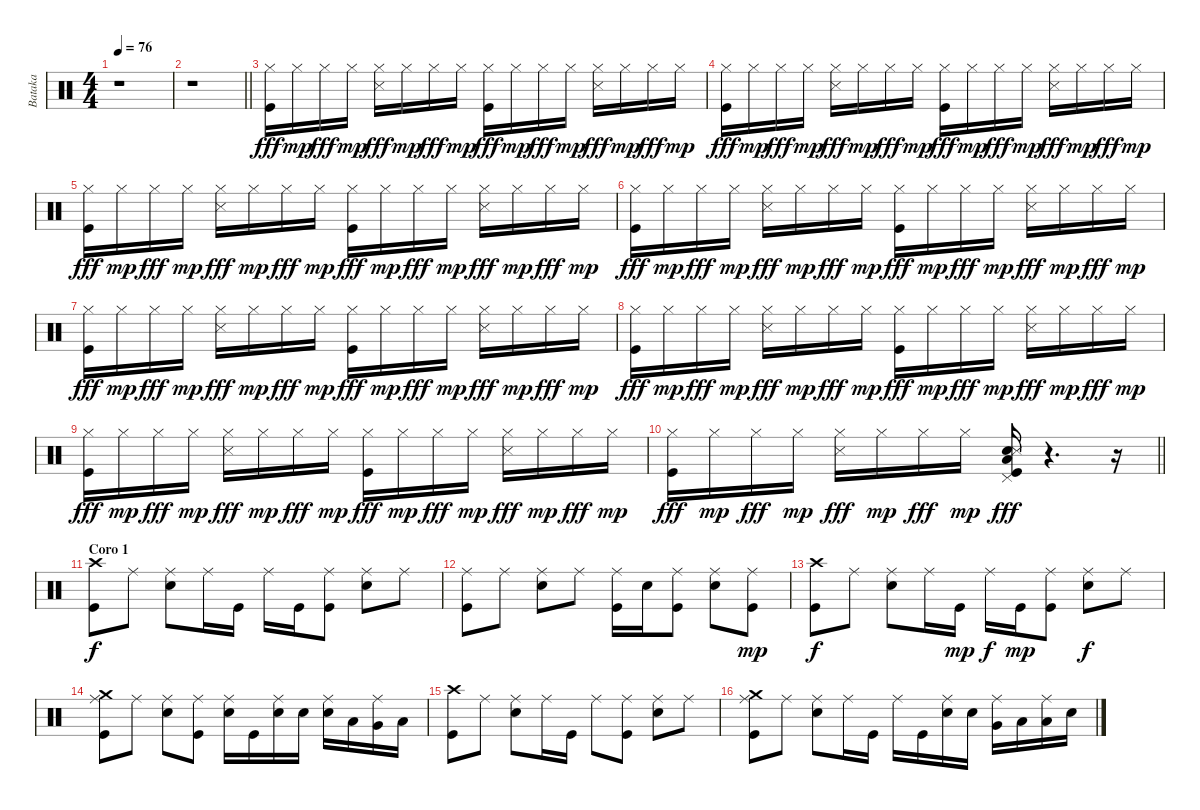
\track ("Bataka" "Bataka") {instrument percussion}
\staff {score}
\articulation defaults
\ts (4 4)
\tempo 76
\clef neutral
\ks c
r.1{dy f} |
\barLineRight lightlight
r.1 |
\section ("" "")
("Kick (hit)" "Hi-Hat (closed)").16{dy fff} "Hi-Hat (closed)".16{dy mp} "Hi-Hat (closed)".16{dy fff} "Hi-Hat (closed)".16{dy mp} ("Snare (side stick) 3" "Hi-Hat (closed)").16{dy fff} "Hi-Hat (closed)".16{dy mp} "Hi-Hat (closed)".16{dy fff} "Hi-Hat (closed)".16{dy mp} ("Kick (hit)" "Hi-Hat (closed)").16{dy fff} "Hi-Hat (closed)".16{dy mp} "Hi-Hat (closed)".16{dy fff} "Hi-Hat (closed)".16{dy mp} ("Snare (side stick) 3" "Hi-Hat (closed)").16{dy fff} "Hi-Hat (closed)".16{dy mp} "Hi-Hat (closed)".16{dy fff} "Hi-Hat (closed)".16{dy mp} |
("Kick (hit)" "Hi-Hat (closed)").16{dy fff} "Hi-Hat (closed)".16{dy mp} "Hi-Hat (closed)".16{dy fff} "Hi-Hat (closed)".16{dy mp} ("Snare (side stick) 3" "Hi-Hat (closed)").16{dy fff} "Hi-Hat (closed)".16{dy mp} "Hi-Hat (closed)".16{dy fff} "Hi-Hat (closed)".16{dy mp} ("Kick (hit)" "Hi-Hat (closed)").16{dy fff} "Hi-Hat (closed)".16{dy mp} "Hi-Hat (closed)".16{dy fff} "Hi-Hat (closed)".16{dy mp} ("Snare (side stick) 3" "Hi-Hat (closed)").16{dy fff} "Hi-Hat (closed)".16{dy mp} "Hi-Hat (closed)".16{dy fff} "Hi-Hat (closed)".16{dy mp} |
("Kick (hit)" "Hi-Hat (closed)").16{dy fff} "Hi-Hat (closed)".16{dy mp} "Hi-Hat (closed)".16{dy fff} "Hi-Hat (closed)".16{dy mp} ("Snare (side stick) 3" "Hi-Hat (closed)").16{dy fff} "Hi-Hat (closed)".16{dy mp} "Hi-Hat (closed)".16{dy fff} "Hi-Hat (closed)".16{dy mp} ("Kick (hit)" "Hi-Hat (closed)").16{dy fff} "Hi-Hat (closed)".16{dy mp} "Hi-Hat (closed)".16{dy fff} "Hi-Hat (closed)".16{dy mp} ("Snare (side stick) 3" "Hi-Hat (closed)").16{dy fff} "Hi-Hat (closed)".16{dy mp} "Hi-Hat (closed)".16{dy fff} "Hi-Hat (closed)".16{dy mp} |
("Kick (hit)" "Hi-Hat (closed)").16{dy fff} "Hi-Hat (closed)".16{dy mp} "Hi-Hat (closed)".16{dy fff} "Hi-Hat (closed)".16{dy mp} ("Snare (side stick) 3" "Hi-Hat (closed)").16{dy fff} "Hi-Hat (closed)".16{dy mp} "Hi-Hat (closed)".16{dy fff} "Hi-Hat (closed)".16{dy mp} ("Kick (hit)" "Hi-Hat (closed)").16{dy fff} "Hi-Hat (closed)".16{dy mp} "Hi-Hat (closed)".16{dy fff} "Hi-Hat (closed)".16{dy mp} ("Snare (side stick) 3" "Hi-Hat (closed)").16{dy fff} "Hi-Hat (closed)".16{dy mp} "Hi-Hat (closed)".16{dy fff} "Hi-Hat (closed)".16{dy mp} |
("Kick (hit)" "Hi-Hat (closed)").16{dy fff} "Hi-Hat (closed)".16{dy mp} "Hi-Hat (closed)".16{dy fff} "Hi-Hat (closed)".16{dy mp} ("Snare (side stick) 3" "Hi-Hat (closed)").16{dy fff} "Hi-Hat (closed)".16{dy mp} "Hi-Hat (closed)".16{dy fff} "Hi-Hat (closed)".16{dy mp} ("Kick (hit)" "Hi-Hat (closed)").16{dy fff} "Hi-Hat (closed)".16{dy mp} "Hi-Hat (closed)".16{dy fff} "Hi-Hat (closed)".16{dy mp} ("Snare (side stick) 3" "Hi-Hat (closed)").16{dy fff} "Hi-Hat (closed)".16{dy mp} "Hi-Hat (closed)".16{dy fff} "Hi-Hat (closed)".16{dy mp} |
("Kick (hit)" "Hi-Hat (closed)").16{dy fff} "Hi-Hat (closed)".16{dy mp} "Hi-Hat (closed)".16{dy fff} "Hi-Hat (closed)".16{dy mp} ("Snare (side stick) 3" "Hi-Hat (closed)").16{dy fff} "Hi-Hat (closed)".16{dy mp} "Hi-Hat (closed)".16{dy fff} "Hi-Hat (closed)".16{dy mp} ("Kick (hit)" "Hi-Hat (closed)").16{dy fff} "Hi-Hat (closed)".16{dy mp} "Hi-Hat (closed)".16{dy fff} "Hi-Hat (closed)".16{dy mp} ("Snare (side stick) 3" "Hi-Hat (closed)").16{dy fff} "Hi-Hat (closed)".16{dy mp} "Hi-Hat (closed)".16{dy fff} "Hi-Hat (closed)".16{dy mp} |
("Kick (hit)" "Hi-Hat (closed)").16{dy fff} "Hi-Hat (closed)".16{dy mp} "Hi-Hat (closed)".16{dy fff} "Hi-Hat (closed)".16{dy mp} ("Snare (side stick) 3" "Hi-Hat (closed)").16{dy fff} "Hi-Hat (closed)".16{dy mp} "Hi-Hat (closed)".16{dy fff} "Hi-Hat (closed)".16{dy mp} ("Kick (hit)" "Hi-Hat (closed)").16{dy fff} "Hi-Hat (closed)".16{dy mp} "Hi-Hat (closed)".16{dy fff} "Hi-Hat (closed)".16{dy mp} ("Snare (side stick) 3" "Hi-Hat (closed)").16{dy fff} "Hi-Hat (closed)".16{dy mp} "Hi-Hat (closed)".16{dy fff} "Hi-Hat (closed)".16{dy mp} |
\barLineRight lightlight
("Kick (hit)" "Hi-Hat (closed)").16{dy fff} "Hi-Hat (closed)".16{dy mp} "Hi-Hat (closed)".16{dy fff} "Hi-Hat (closed)".16{dy mp} ("Snare (side stick) 3" "Hi-Hat (closed)").16{dy fff} "Hi-Hat (closed)".16{dy mp} "Hi-Hat (closed)".16{dy fff} "Hi-Hat (closed)".16{dy mp} ("Kick (hit)" "Low Floor Tom (hit)" "Snare (hit) 2" "Pedal Hi-Hat (hit)" "Snare (side stick) 3").16{dy fff} r.4{d} r.16 |
\section ("" "Coro 1")
("Crash high (hit)" "Kick (hit)").8{dy f} "Ride (middle)".8 ("Ride (middle)" "Snare (hit) 2").8 "Ride (middle)".16 "Kick (hit)".16 "Ride (middle)".16 "Kick (hit)".16 ("Ride (middle)" "Kick (hit)").8 ("Ride (middle)" "Snare (hit) 2").8 "Ride (middle)".8 |
("Ride (middle)" "Kick (hit)").8 "Ride (middle)".8 ("Ride (middle)" "Snare (hit) 2").8 "Ride (middle)".8 ("Ride (middle)" "Kick (hit)").16 "Snare (hit) 2".16 ("Ride (middle)" "Kick (hit)").8 ("Ride (middle)" "Snare (hit) 2").8 ("Ride (middle)" "Kick (hit)").8{dy mp} |
("Kick (hit)" "Crash high (hit)").8{dy f} "Ride (middle)".8 ("Ride (middle)" "Snare (hit) 2").8 "Ride (middle)".16 "Kick (hit)".16{dy mp} "Ride (middle)".16{dy f} "Kick (hit)".16{dy mp} ("Ride (middle)" "Kick (hit)").8 ("Ride (middle)" "Snare (hit) 2").8{dy f} "Ride (middle)".8 |
("Ride (middle)" "Kick (hit)" "Crash medium (hit)").8 "Ride (middle)".8 ("Ride (middle)" "Snare (hit) 2").8 ("Ride (middle)" "Kick (hit)").8 ("Ride (middle)" "Snare (hit) 2").16 "Kick (hit)".16 ("Ride (middle)" "Snare (hit) 2").16 "Snare (hit) 2".16 ("Ride (middle)" "Snare (hit) 2").16 "Low Tom (hit)".16 ("Ride (middle)" "Very Low Tom (hit)").16 "Low Floor Tom (hit)".16 |
("Crash high (hit)" "Kick (hit)").8 "Ride (middle)".8 ("Ride (middle)" "Snare (hit) 2").8 "Ride (middle)".16 "Kick (hit)".16 "Ride (middle)".8 ("Ride (middle)" "Kick (hit)").8 ("Ride (middle)" "Snare (hit) 2").8 "Ride (middle)".8 |
("Ride (middle)" "Kick (hit)" "Crash medium (hit)").8 "Ride (middle)".8 ("Ride (middle)" "Snare (hit) 2").8 "Ride (middle)".16 "Kick (hit)".16 "Ride (middle)".16 "Kick (hit)".16 ("Ride (middle)" "Snare (hit) 2").16 "Snare (hit) 2".16 ("Ride (middle)" "Very Low Tom (hit)").16 "Low Floor Tom (hit)".16 ("Ride (middle)" "Low Tom (hit)").16 "Snare (hit) 2".16
